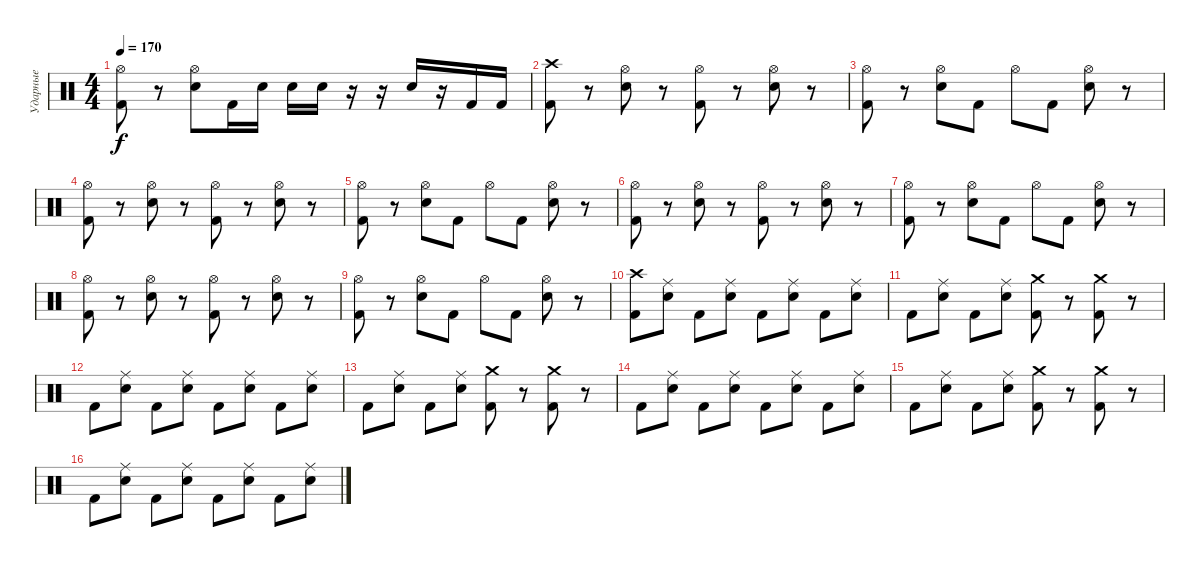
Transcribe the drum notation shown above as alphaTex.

\track ("Ударные" "Ударные") {instrument percussion}
\staff {score}
\articulation defaults
\ts (4 4)
\tempo 170
\clef neutral
\ks c
("Hi-Hat (open)" "Kick (hit) 2").8{dy f} r.8 ("Hi-Hat (open)" "Electric Snare (hit)").8 "Kick (hit) 2".16 "Electric Snare (hit)".16 "Electric Snare (hit)".16 "Electric Snare (hit)".16 r.16 r.16 "Electric Snare (hit)".16 r.16 "Kick (hit) 2".16 "Kick (hit) 2".16 |
("Crash high (hit)" "Kick (hit) 2").8 r.8 ("Hi-Hat (open)" "Electric Snare (hit)").8 r.8 ("Hi-Hat (open)" "Kick (hit) 2").8 r.8 ("Hi-Hat (open)" "Electric Snare (hit)").8 r.8 |
("Hi-Hat (open)" "Kick (hit) 2").8 r.8 ("Hi-Hat (open)" "Electric Snare (hit)").8 "Kick (hit) 2".8 "Hi-Hat (open)".8 "Kick (hit) 2".8 ("Hi-Hat (open)" "Electric Snare (hit)").8 r.8 |
("Hi-Hat (open)" "Kick (hit) 2").8 r.8 ("Hi-Hat (open)" "Electric Snare (hit)").8 r.8 ("Hi-Hat (open)" "Kick (hit) 2").8 r.8 ("Hi-Hat (open)" "Electric Snare (hit)").8 r.8 |
("Hi-Hat (open)" "Kick (hit) 2").8 r.8 ("Hi-Hat (open)" "Electric Snare (hit)").8 "Kick (hit) 2".8 "Hi-Hat (open)".8 "Kick (hit) 2".8 ("Hi-Hat (open)" "Electric Snare (hit)").8 r.8 |
("Hi-Hat (open)" "Kick (hit) 2").8 r.8 ("Hi-Hat (open)" "Electric Snare (hit)").8 r.8 ("Hi-Hat (open)" "Kick (hit) 2").8 r.8 ("Hi-Hat (open)" "Electric Snare (hit)").8 r.8 |
("Hi-Hat (open)" "Kick (hit) 2").8 r.8 ("Hi-Hat (open)" "Electric Snare (hit)").8 "Kick (hit) 2".8 "Hi-Hat (open)".8 "Kick (hit) 2".8 ("Hi-Hat (open)" "Electric Snare (hit)").8 r.8 |
("Hi-Hat (open)" "Kick (hit) 2").8 r.8 ("Hi-Hat (open)" "Electric Snare (hit)").8 r.8 ("Hi-Hat (open)" "Kick (hit) 2").8 r.8 ("Hi-Hat (open)" "Electric Snare (hit)").8 r.8 |
("Hi-Hat (open)" "Kick (hit) 2").8 r.8 ("Hi-Hat (open)" "Electric Snare (hit)").8 "Kick (hit) 2".8 "Hi-Hat (open)".8 "Kick (hit) 2".8 ("Hi-Hat (open)" "Electric Snare (hit)").8 r.8 |
("Crash high (hit)" "Kick (hit) 2").8 ("Ride (middle)" "Electric Snare (hit)").8 "Kick (hit) 2".8 ("Ride (middle)" "Electric Snare (hit)").8 "Kick (hit) 2".8 ("Ride (middle)" "Electric Snare (hit)").8 "Kick (hit) 2".8 ("Ride (middle)" "Electric Snare (hit)").8 |
"Kick (hit) 2".8 ("Ride (middle)" "Electric Snare (hit)").8 "Kick (hit) 2".8 ("Ride (middle)" "Electric Snare (hit)").8 ("Crash medium (hit)" "Kick (hit) 2").8 r.8 ("Crash medium (hit)" "Kick (hit) 2").8 r.8 |
"Kick (hit) 2".8 ("Ride (middle)" "Electric Snare (hit)").8 "Kick (hit) 2".8 ("Ride (middle)" "Electric Snare (hit)").8 "Kick (hit) 2".8 ("Ride (middle)" "Electric Snare (hit)").8 "Kick (hit) 2".8 ("Ride (middle)" "Electric Snare (hit)").8 |
"Kick (hit) 2".8 ("Ride (middle)" "Electric Snare (hit)").8 "Kick (hit) 2".8 ("Ride (middle)" "Electric Snare (hit)").8 ("Crash medium (hit)" "Kick (hit) 2").8 r.8 ("Crash medium (hit)" "Kick (hit) 2").8 r.8 |
"Kick (hit) 2".8 ("Ride (middle)" "Electric Snare (hit)").8 "Kick (hit) 2".8 ("Ride (middle)" "Electric Snare (hit)").8 "Kick (hit) 2".8 ("Ride (middle)" "Electric Snare (hit)").8 "Kick (hit) 2".8 ("Ride (middle)" "Electric Snare (hit)").8 |
"Kick (hit) 2".8 ("Ride (middle)" "Electric Snare (hit)").8 "Kick (hit) 2".8 ("Ride (middle)" "Electric Snare (hit)").8 ("Crash medium (hit)" "Kick (hit) 2").8 r.8 ("Crash medium (hit)" "Kick (hit) 2").8 r.8 |
"Kick (hit) 2".8 ("Ride (middle)" "Electric Snare (hit)").8 "Kick (hit) 2".8 ("Ride (middle)" "Electric Snare (hit)").8 "Kick (hit) 2".8 ("Ride (middle)" "Electric Snare (hit)").8 "Kick (hit) 2".8 ("Ride (middle)" "Electric Snare (hit)").8
